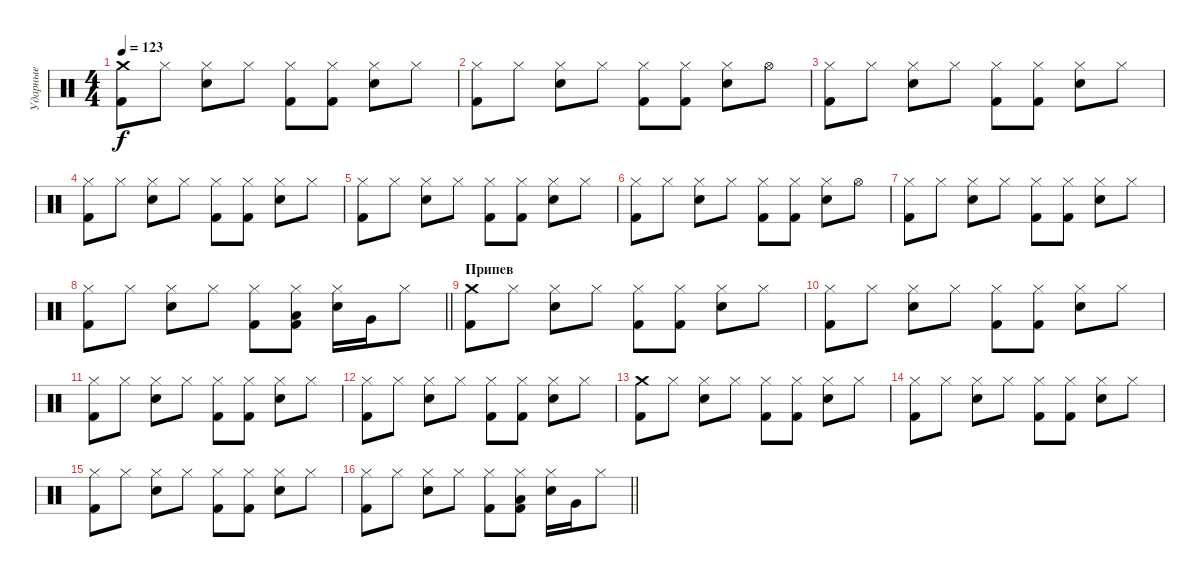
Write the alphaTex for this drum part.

\track ("Ударные" "Ударные") {instrument percussion}
\staff {score}
\articulation defaults
\ts (4 4)
\tempo 123
\clef neutral
\ks c
("Crash medium (hit)" "Kick (hit) 2").8{dy f} "Hi-Hat (closed)".8 ("Hi-Hat (closed)" "Electric Snare (hit)").8 "Hi-Hat (closed)".8 ("Hi-Hat (closed)" "Kick (hit) 2").8 ("Hi-Hat (closed)" "Kick (hit) 2").8 ("Hi-Hat (closed)" "Electric Snare (hit)").8 "Hi-Hat (closed)".8 |
("Hi-Hat (closed)" "Kick (hit) 2").8 "Hi-Hat (closed)".8 ("Hi-Hat (closed)" "Electric Snare (hit)").8 "Hi-Hat (closed)".8 ("Hi-Hat (closed)" "Kick (hit) 2").8 ("Hi-Hat (closed)" "Kick (hit) 2").8 ("Hi-Hat (closed)" "Electric Snare (hit)").8 "Hi-Hat (open)".8 |
("Hi-Hat (closed)" "Kick (hit) 2").8 "Hi-Hat (closed)".8 ("Hi-Hat (closed)" "Electric Snare (hit)").8 "Hi-Hat (closed)".8 ("Hi-Hat (closed)" "Kick (hit) 2").8 ("Hi-Hat (closed)" "Kick (hit) 2").8 ("Hi-Hat (closed)" "Electric Snare (hit)").8 "Hi-Hat (closed)".8 |
("Hi-Hat (closed)" "Kick (hit) 2").8 "Hi-Hat (closed)".8 ("Hi-Hat (closed)" "Electric Snare (hit)").8 "Hi-Hat (closed)".8 ("Hi-Hat (closed)" "Kick (hit) 2").8 ("Hi-Hat (closed)" "Kick (hit) 2").8 ("Hi-Hat (closed)" "Electric Snare (hit)").8 "Hi-Hat (closed)".8 |
("Hi-Hat (closed)" "Kick (hit) 2").8 "Hi-Hat (closed)".8 ("Hi-Hat (closed)" "Electric Snare (hit)").8 "Hi-Hat (closed)".8 ("Hi-Hat (closed)" "Kick (hit) 2").8 ("Hi-Hat (closed)" "Kick (hit) 2").8 ("Hi-Hat (closed)" "Electric Snare (hit)").8 "Hi-Hat (closed)".8 |
("Hi-Hat (closed)" "Kick (hit) 2").8 "Hi-Hat (closed)".8 ("Hi-Hat (closed)" "Electric Snare (hit)").8 "Hi-Hat (closed)".8 ("Hi-Hat (closed)" "Kick (hit) 2").8 ("Hi-Hat (closed)" "Kick (hit) 2").8 ("Hi-Hat (closed)" "Electric Snare (hit)").8 "Hi-Hat (open)".8 |
("Hi-Hat (closed)" "Kick (hit) 2").8 "Hi-Hat (closed)".8 ("Hi-Hat (closed)" "Electric Snare (hit)").8 "Hi-Hat (closed)".8 ("Hi-Hat (closed)" "Kick (hit) 2").8 ("Hi-Hat (closed)" "Kick (hit) 2").8 ("Hi-Hat (closed)" "Electric Snare (hit)").8 "Hi-Hat (closed)".8 |
\barLineRight lightlight
("Hi-Hat (closed)" "Kick (hit) 2").8 "Hi-Hat (closed)".8 ("Hi-Hat (closed)" "Electric Snare (hit)").8 "Hi-Hat (closed)".8 ("Hi-Hat (closed)" "Kick (hit) 2").8 ("Hi-Hat (closed)" "Low Tom (hit)" "Kick (hit) 2").8 ("Hi-Hat (closed)" "Electric Snare (hit)").16 "Very Low Tom (hit)".16 "Hi-Hat (closed)".8 |
\section ("" "Припев")
("Crash medium (hit)" "Kick (hit) 2").8 "Hi-Hat (closed)".8 ("Hi-Hat (closed)" "Electric Snare (hit)").8 "Hi-Hat (closed)".8 ("Hi-Hat (closed)" "Kick (hit) 2").8 ("Hi-Hat (closed)" "Kick (hit) 2").8 ("Hi-Hat (closed)" "Electric Snare (hit)").8 "Hi-Hat (closed)".8 |
("Hi-Hat (closed)" "Kick (hit) 2").8 "Hi-Hat (closed)".8 ("Hi-Hat (closed)" "Electric Snare (hit)").8 "Hi-Hat (closed)".8 ("Hi-Hat (closed)" "Kick (hit) 2").8 ("Hi-Hat (closed)" "Kick (hit) 2").8 ("Hi-Hat (closed)" "Electric Snare (hit)").8 "Hi-Hat (closed)".8 |
("Hi-Hat (closed)" "Kick (hit) 2").8 "Hi-Hat (closed)".8 ("Hi-Hat (closed)" "Electric Snare (hit)").8 "Hi-Hat (closed)".8 ("Hi-Hat (closed)" "Kick (hit) 2").8 ("Hi-Hat (closed)" "Kick (hit) 2").8 ("Hi-Hat (closed)" "Electric Snare (hit)").8 "Hi-Hat (closed)".8 |
("Hi-Hat (closed)" "Kick (hit) 2").8 "Hi-Hat (closed)".8 ("Hi-Hat (closed)" "Electric Snare (hit)").8 "Hi-Hat (closed)".8 ("Hi-Hat (closed)" "Kick (hit) 2").8 ("Hi-Hat (closed)" "Kick (hit) 2").8 ("Hi-Hat (closed)" "Electric Snare (hit)").8 "Hi-Hat (closed)".8 |
("Crash medium (hit)" "Kick (hit) 2").8 "Hi-Hat (closed)".8 ("Hi-Hat (closed)" "Electric Snare (hit)").8 "Hi-Hat (closed)".8 ("Hi-Hat (closed)" "Kick (hit) 2").8 ("Hi-Hat (closed)" "Kick (hit) 2").8 ("Hi-Hat (closed)" "Electric Snare (hit)").8 "Hi-Hat (closed)".8 |
("Hi-Hat (closed)" "Kick (hit) 2").8 "Hi-Hat (closed)".8 ("Hi-Hat (closed)" "Electric Snare (hit)").8 "Hi-Hat (closed)".8 ("Hi-Hat (closed)" "Kick (hit) 2").8 ("Hi-Hat (closed)" "Kick (hit) 2").8 ("Hi-Hat (closed)" "Electric Snare (hit)").8 "Hi-Hat (closed)".8 |
("Hi-Hat (closed)" "Kick (hit) 2").8 "Hi-Hat (closed)".8 ("Hi-Hat (closed)" "Electric Snare (hit)").8 "Hi-Hat (closed)".8 ("Hi-Hat (closed)" "Kick (hit) 2").8 ("Hi-Hat (closed)" "Kick (hit) 2").8 ("Hi-Hat (closed)" "Electric Snare (hit)").8 "Hi-Hat (closed)".8 |
\barLineRight lightlight
("Hi-Hat (closed)" "Kick (hit) 2").8 "Hi-Hat (closed)".8 ("Hi-Hat (closed)" "Electric Snare (hit)").8 "Hi-Hat (closed)".8 ("Hi-Hat (closed)" "Kick (hit) 2").8 ("Hi-Hat (closed)" "Low Tom (hit)" "Kick (hit) 2").8 ("Hi-Hat (closed)" "Electric Snare (hit)").16 "Very Low Tom (hit)".16 "Hi-Hat (closed)".8
